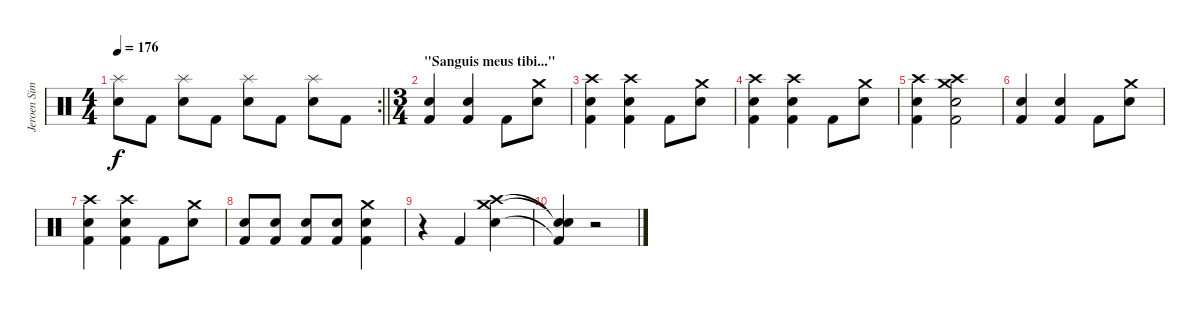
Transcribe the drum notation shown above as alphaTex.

\track ("Jeroen Simons" "Jeroen Sim") {instrument percussion}
\staff {score}
\articulation defaults
\rc 2
\ts (4 4)
\tempo 176
\clef neutral
\barLineRight lightlight
\ks c
("Splash (hit)" "Electric Snare (hit)").8{dy f} "Kick (hit) 2".8 ("Splash (hit)" "Electric Snare (hit)").8 "Kick (hit) 2".8 ("Splash (hit)" "Electric Snare (hit)").8 "Kick (hit) 2".8 ("Splash (hit)" "Electric Snare (hit)").8 "Kick (hit) 2".8 |
\ts (3 4)
\section ("" "\"Sanguis meus tibi...\"")
("Snare (hit) 2" "Kick (hit) 2").4 ("Snare (hit) 2" "Kick (hit) 2").4 "Kick (hit) 2".8 ("Crash medium (hit)" "Snare (hit) 2").8 |
("Crash high (hit)" "Snare (hit) 2" "Kick (hit) 2").4 ("Crash high (hit)" "Snare (hit) 2" "Kick (hit) 2").4 "Kick (hit) 2".8 ("Crash medium (hit)" "Snare (hit) 2").8 |
("Crash high (hit)" "Snare (hit) 2" "Kick (hit) 2").4 ("Crash high (hit)" "Snare (hit) 2" "Kick (hit) 2").4 "Kick (hit) 2".8 ("Crash medium (hit)" "Snare (hit) 2").8 |
("Crash high (hit)" "Snare (hit) 2" "Kick (hit) 2").4 ("Crash high (hit)" "Crash medium (hit)" "Snare (hit) 2" "Kick (hit) 2").2 |
("Snare (hit) 2" "Kick (hit) 2").4 ("Snare (hit) 2" "Kick (hit) 2").4 "Kick (hit) 2".8 ("Crash medium (hit)" "Snare (hit) 2").8 |
("Crash high (hit)" "Snare (hit) 2" "Kick (hit) 2").4 ("Crash high (hit)" "Snare (hit) 2" "Kick (hit) 2").4 "Kick (hit) 2".8 ("Crash medium (hit)" "Snare (hit) 2").8 |
("Snare (hit) 2" "Kick (hit) 2").8 ("Snare (hit) 2" "Kick (hit) 2").8 ("Snare (hit) 2" "Kick (hit) 2").8 ("Snare (hit) 2" "Kick (hit) 2").8 ("Crash medium (hit)" "Snare (hit) 2" "Kick (hit) 2").4 |
r.4 "Kick (hit) 2".4 ("Crash high (hit)" "Crash medium (hit)" "Snare (hit) 2").4 |
("Snare (hit)"{t} "Snare (hit)"{t} "Kick (hit) 2"{t}).4 r.2
